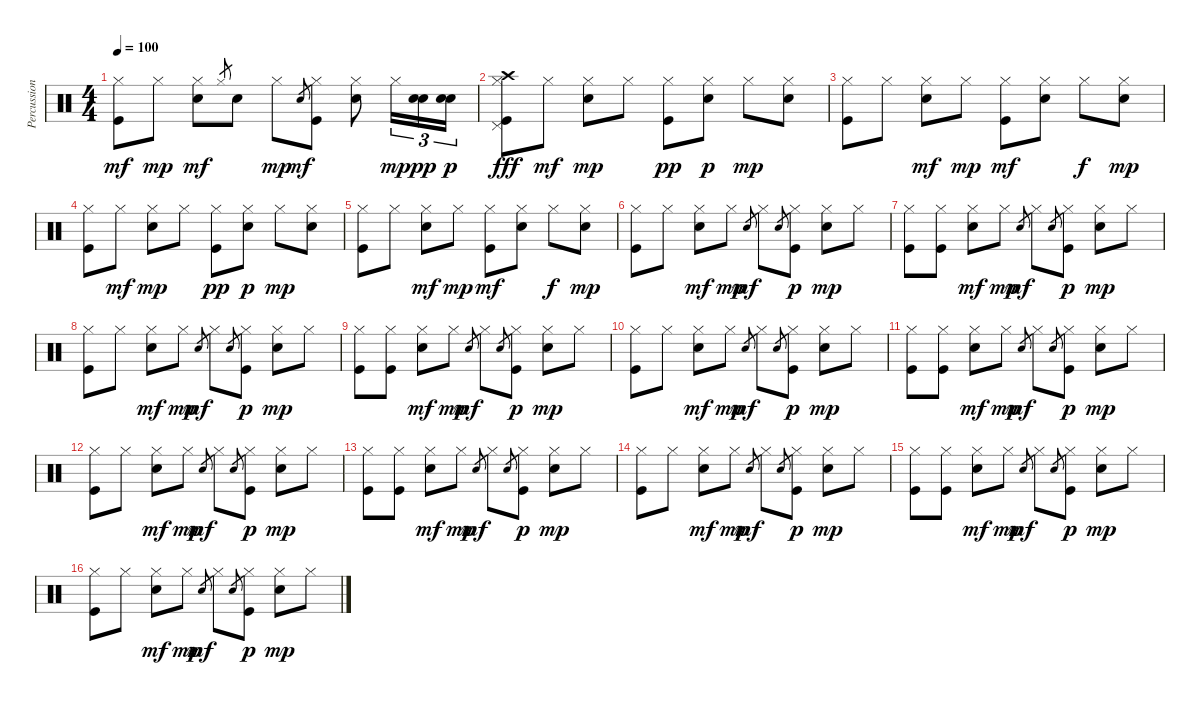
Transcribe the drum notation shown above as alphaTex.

\track ("Percussions" "Percussion") {instrument percussion}
\staff {score}
\articulation defaults
\ts (4 4)
\tempo 100
\clef neutral
\ks c
("Kick (hit)" "Hi-Hat (closed)").8{dy mf} "Hi-Hat (closed)".8{dy mp} ("Snare (hit) 2" "Hi-Hat (closed)").8{dy mf} "Hi-Hat (closed)".8{gr} "Snare (hit) 2".8 "Hi-Hat (closed)".8{dy mp} "Snare (hit) 2".8{gr dy mf} ("Kick (hit)" "Hi-Hat (closed)").8 ("Snare (hit) 2" "Hi-Hat (closed)").8 "Hi-Hat (closed)".16{tu (3 2) dy mp} ("Snare (hit) 2" "Snare (hit) 2").16{tu (3 2) dy pp} ("Snare (hit) 2" "Snare (hit) 2").16{tu (3 2) dy p} |
("Kick (hit)" "Hi-Hat (closed)" "Pedal Hi-Hat (hit)" "Crash high (hit)").8{dy fff} "Hi-Hat (closed)".8{dy mf} ("Snare (hit) 2" "Hi-Hat (closed)").8{dy mp} "Hi-Hat (closed)".8 ("Kick (hit)" "Hi-Hat (closed)").8{dy pp} ("Snare (hit) 2" "Hi-Hat (closed)").8{dy p} "Hi-Hat (closed)".8{dy mp} ("Snare (hit) 2" "Hi-Hat (closed)").8 |
("Kick (hit)" "Hi-Hat (closed)").8 "Hi-Hat (closed)".8 ("Snare (hit) 2" "Hi-Hat (closed)").8{dy mf} "Hi-Hat (closed)".8{dy mp} ("Kick (hit)" "Hi-Hat (closed)").8{dy mf} ("Snare (hit) 2" "Hi-Hat (closed)").8 "Hi-Hat (closed)".8{dy f} ("Snare (hit) 2" "Hi-Hat (closed)").8{dy mp} |
("Kick (hit)" "Hi-Hat (closed)").8 "Hi-Hat (closed)".8{dy mf} ("Snare (hit) 2" "Hi-Hat (closed)").8{dy mp} "Hi-Hat (closed)".8 ("Kick (hit)" "Hi-Hat (closed)").8{dy pp} ("Snare (hit) 2" "Hi-Hat (closed)").8{dy p} "Hi-Hat (closed)".8{dy mp} ("Snare (hit) 2" "Hi-Hat (closed)").8 |
("Kick (hit)" "Hi-Hat (closed)").8 "Hi-Hat (closed)".8 ("Snare (hit) 2" "Hi-Hat (closed)").8{dy mf} "Hi-Hat (closed)".8{dy mp} ("Kick (hit)" "Hi-Hat (closed)").8{dy mf} ("Snare (hit) 2" "Hi-Hat (closed)").8 "Hi-Hat (closed)".8{dy f} ("Snare (hit) 2" "Hi-Hat (closed)").8{dy mp} |
("Kick (hit)" "Hi-Hat (closed)").8 "Hi-Hat (closed)".8 ("Snare (hit) 2" "Hi-Hat (closed)").8{dy mf} "Hi-Hat (closed)".8{dy mp} "Snare (hit) 2".8{gr dy mf} "Hi-Hat (closed)".8 "Snare (hit) 2".8{gr} ("Kick (hit)" "Hi-Hat (closed)").8{dy p} ("Snare (hit) 2" "Hi-Hat (closed)").8{dy mp} "Hi-Hat (closed)".8 |
("Kick (hit)" "Hi-Hat (closed)").8 ("Kick (hit)" "Hi-Hat (closed)").8 ("Snare (hit) 2" "Hi-Hat (closed)").8{dy mf} "Hi-Hat (closed)".8{dy mp} "Snare (hit) 2".8{gr dy mf} "Hi-Hat (closed)".8 "Snare (hit) 2".8{gr} ("Kick (hit)" "Hi-Hat (closed)").8{dy p} ("Snare (hit) 2" "Hi-Hat (closed)").8{dy mp} "Hi-Hat (closed)".8 |
("Kick (hit)" "Hi-Hat (closed)").8 "Hi-Hat (closed)".8 ("Snare (hit) 2" "Hi-Hat (closed)").8{dy mf} "Hi-Hat (closed)".8{dy mp} "Snare (hit) 2".8{gr dy mf} "Hi-Hat (closed)".8 "Snare (hit) 2".8{gr} ("Kick (hit)" "Hi-Hat (closed)").8{dy p} ("Snare (hit) 2" "Hi-Hat (closed)").8{dy mp} "Hi-Hat (closed)".8 |
("Kick (hit)" "Hi-Hat (closed)").8 ("Kick (hit)" "Hi-Hat (closed)").8 ("Snare (hit) 2" "Hi-Hat (closed)").8{dy mf} "Hi-Hat (closed)".8{dy mp} "Snare (hit) 2".8{gr dy mf} "Hi-Hat (closed)".8 "Snare (hit) 2".8{gr} ("Kick (hit)" "Hi-Hat (closed)").8{dy p} ("Snare (hit) 2" "Hi-Hat (closed)").8{dy mp} "Hi-Hat (closed)".8 |
("Kick (hit)" "Hi-Hat (closed)").8 "Hi-Hat (closed)".8 ("Snare (hit) 2" "Hi-Hat (closed)").8{dy mf} "Hi-Hat (closed)".8{dy mp} "Snare (hit) 2".8{gr dy mf} "Hi-Hat (closed)".8 "Snare (hit) 2".8{gr} ("Kick (hit)" "Hi-Hat (closed)").8{dy p} ("Snare (hit) 2" "Hi-Hat (closed)").8{dy mp} "Hi-Hat (closed)".8 |
("Kick (hit)" "Hi-Hat (closed)").8 ("Kick (hit)" "Hi-Hat (closed)").8 ("Snare (hit) 2" "Hi-Hat (closed)").8{dy mf} "Hi-Hat (closed)".8{dy mp} "Snare (hit) 2".8{gr dy mf} "Hi-Hat (closed)".8 "Snare (hit) 2".8{gr} ("Kick (hit)" "Hi-Hat (closed)").8{dy p} ("Snare (hit) 2" "Hi-Hat (closed)").8{dy mp} "Hi-Hat (closed)".8 |
("Kick (hit)" "Hi-Hat (closed)").8 "Hi-Hat (closed)".8 ("Snare (hit) 2" "Hi-Hat (closed)").8{dy mf} "Hi-Hat (closed)".8{dy mp} "Snare (hit) 2".8{gr dy mf} "Hi-Hat (closed)".8 "Snare (hit) 2".8{gr} ("Kick (hit)" "Hi-Hat (closed)").8{dy p} ("Snare (hit) 2" "Hi-Hat (closed)").8{dy mp} "Hi-Hat (closed)".8 |
("Kick (hit)" "Hi-Hat (closed)").8 ("Kick (hit)" "Hi-Hat (closed)").8 ("Snare (hit) 2" "Hi-Hat (closed)").8{dy mf} "Hi-Hat (closed)".8{dy mp} "Snare (hit) 2".8{gr dy mf} "Hi-Hat (closed)".8 "Snare (hit) 2".8{gr} ("Kick (hit)" "Hi-Hat (closed)").8{dy p} ("Snare (hit) 2" "Hi-Hat (closed)").8{dy mp} "Hi-Hat (closed)".8 |
("Kick (hit)" "Hi-Hat (closed)").8 "Hi-Hat (closed)".8 ("Snare (hit) 2" "Hi-Hat (closed)").8{dy mf} "Hi-Hat (closed)".8{dy mp} "Snare (hit) 2".8{gr dy mf} "Hi-Hat (closed)".8 "Snare (hit) 2".8{gr} ("Kick (hit)" "Hi-Hat (closed)").8{dy p} ("Snare (hit) 2" "Hi-Hat (closed)").8{dy mp} "Hi-Hat (closed)".8 |
("Kick (hit)" "Hi-Hat (closed)").8 ("Kick (hit)" "Hi-Hat (closed)").8 ("Snare (hit) 2" "Hi-Hat (closed)").8{dy mf} "Hi-Hat (closed)".8{dy mp} "Snare (hit) 2".8{gr dy mf} "Hi-Hat (closed)".8 "Snare (hit) 2".8{gr} ("Kick (hit)" "Hi-Hat (closed)").8{dy p} ("Snare (hit) 2" "Hi-Hat (closed)").8{dy mp} "Hi-Hat (closed)".8 |
("Kick (hit)" "Hi-Hat (closed)").8 "Hi-Hat (closed)".8 ("Snare (hit) 2" "Hi-Hat (closed)").8{dy mf} "Hi-Hat (closed)".8{dy mp} "Snare (hit) 2".8{gr dy mf} "Hi-Hat (closed)".8 "Snare (hit) 2".8{gr} ("Kick (hit)" "Hi-Hat (closed)").8{dy p} ("Snare (hit) 2" "Hi-Hat (closed)").8{dy mp} "Hi-Hat (closed)".8
